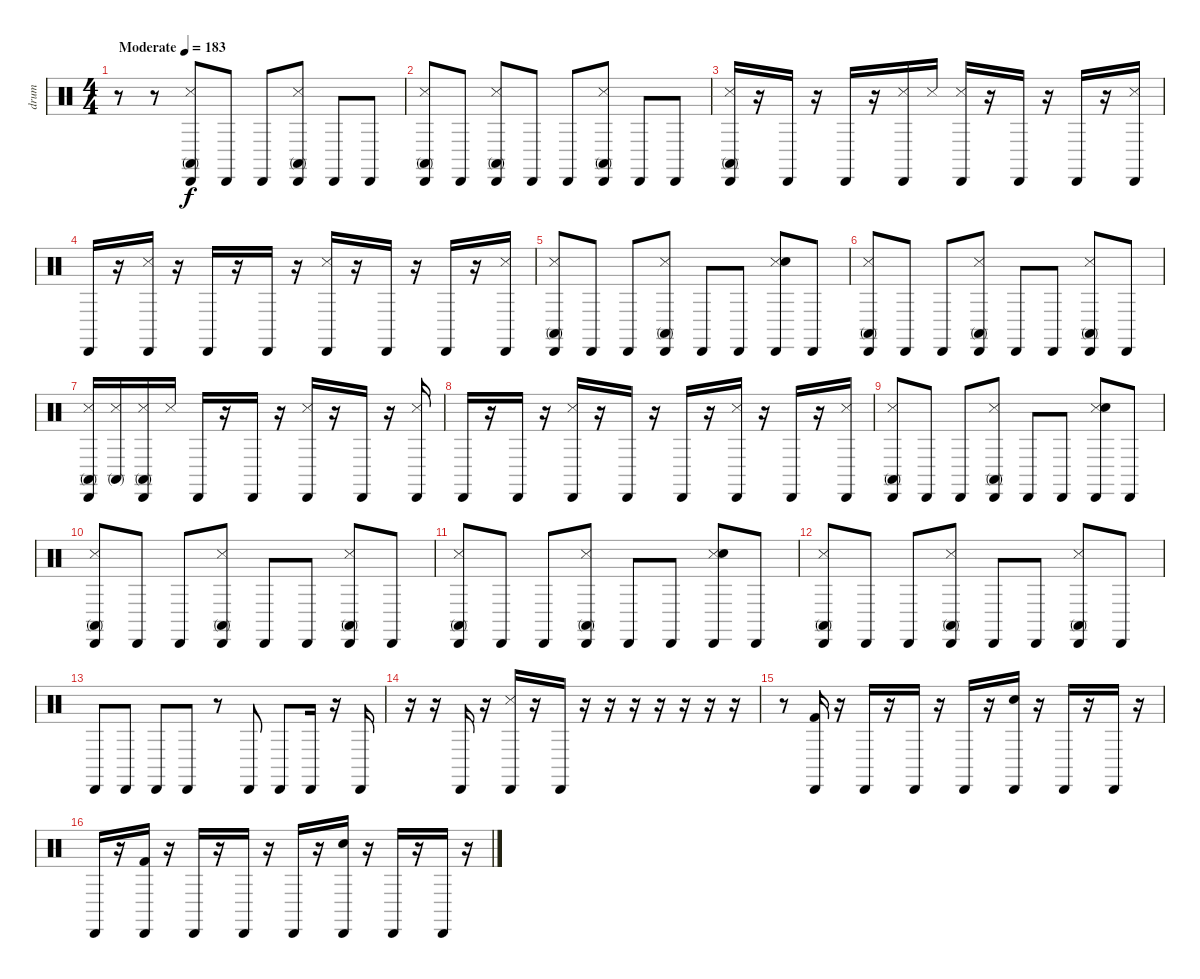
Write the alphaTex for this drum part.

\track ("drum" "drum") {instrument percussion}
\staff {score}
\articulation defaults
\ts (4 4)
\tempo (183 "Moderate")
\clef neutral
\ks c
r.8{dy f} r.8 ("Cabasa (hit)" "Conga high (mute)" "Snare (side stick) 3").8 "Cabasa (hit)".8 "Cabasa (hit)".8 ("Cabasa (hit)" "Snare (side stick) 3" "Conga high (mute)").8 "Cabasa (hit)".8 "Cabasa (hit)".8 |
("Cabasa (hit)" "Snare (side stick) 3" "Conga high (mute)").8 "Cabasa (hit)".8 ("Cabasa (hit)" "Conga high (mute)" "Snare (side stick) 3").8 "Cabasa (hit)".8 "Cabasa (hit)".8 ("Cabasa (hit)" "Conga high (mute)" "Snare (side stick) 3").8 "Cabasa (hit)".8 "Cabasa (hit)".8 |
("Cabasa (hit)" "Conga high (mute)" "Snare (side stick) 3").16 r.16 "Cabasa (hit)".16 r.16 "Cabasa (hit)".16 r.16 ("Cabasa (hit)" "Snare (side stick) 3").16 "Snare (side stick) 3".16 ("Cabasa (hit)" "Snare (side stick) 3").16 r.16 "Cabasa (hit)".16 r.16 "Cabasa (hit)".16 r.16 ("Cabasa (hit)" "Snare (side stick) 3").16 |
"Cabasa (hit)".16 r.16 ("Cabasa (hit)" "Snare (side stick) 3").16 r.16 "Cabasa (hit)".16 r.16 "Cabasa (hit)".16 r.16 ("Cabasa (hit)" "Snare (side stick) 3").16 r.16 "Cabasa (hit)".16 r.16 "Cabasa (hit)".16 r.16 ("Cabasa (hit)" "Snare (side stick) 3").16 |
("Cabasa (hit)" "Conga high (mute)" "Snare (side stick) 3").8 "Cabasa (hit)".8 "Cabasa (hit)".8 ("Cabasa (hit)" "Snare (side stick) 3" "Conga high (mute)").8 "Cabasa (hit)".8 "Cabasa (hit)".8 ("Cabasa (hit)" "Snare (side stick) 3" "Snare (hit)").8 "Cabasa (hit)".8 |
("Cabasa (hit)" "Snare (side stick) 3" "Conga high (mute)").8 "Cabasa (hit)".8 "Cabasa (hit)".8 ("Cabasa (hit)" "Conga high (mute)" "Snare (side stick) 3").8 "Cabasa (hit)".8 "Cabasa (hit)".8 ("Cabasa (hit)" "Conga high (mute)" "Snare (side stick) 3").8 "Cabasa (hit)".8 |
("Cabasa (hit)" "Conga high (mute)" "Snare (side stick) 3").16 ("Conga high (mute)" "Snare (side stick) 3").16 ("Cabasa (hit)" "Conga high (mute)" "Snare (side stick) 3").16 "Snare (side stick) 3".16 "Cabasa (hit)".16 r.16 "Cabasa (hit)".16 r.16 ("Cabasa (hit)" "Snare (side stick) 3").16 r.16 "Cabasa (hit)".16 r.16 ("Cabasa (hit)" "Snare (side stick) 3").16 |
"Cabasa (hit)".16 r.16 "Cabasa (hit)".16 r.16 ("Cabasa (hit)" "Snare (side stick) 3").16 r.16 "Cabasa (hit)".16 r.16 "Cabasa (hit)".16 r.16 ("Cabasa (hit)" "Snare (side stick) 3").16 r.16 "Cabasa (hit)".16 r.16 ("Cabasa (hit)" "Snare (side stick) 3").16 |
("Cabasa (hit)" "Conga high (mute)" "Snare (side stick) 3").8 "Cabasa (hit)".8 "Cabasa (hit)".8 ("Cabasa (hit)" "Snare (side stick) 3" "Conga high (mute)").8 "Cabasa (hit)".8 "Cabasa (hit)".8 ("Cabasa (hit)" "Snare (side stick) 3" "Snare (hit)").8 "Cabasa (hit)".8 |
("Cabasa (hit)" "Snare (side stick) 3" "Conga high (mute)").8 "Cabasa (hit)".8 "Cabasa (hit)".8 ("Cabasa (hit)" "Conga high (mute)" "Snare (side stick) 3").8 "Cabasa (hit)".8 "Cabasa (hit)".8 ("Cabasa (hit)" "Conga high (mute)" "Snare (side stick) 3").8 "Cabasa (hit)".8 |
("Cabasa (hit)" "Conga high (mute)" "Snare (side stick) 3").8 "Cabasa (hit)".8 "Cabasa (hit)".8 ("Cabasa (hit)" "Snare (side stick) 3" "Conga high (mute)").8 "Cabasa (hit)".8 "Cabasa (hit)".8 ("Cabasa (hit)" "Snare (side stick) 3" "Snare (hit)").8 "Cabasa (hit)".8 |
("Cabasa (hit)" "Snare (side stick) 3" "Conga high (mute)").8 "Cabasa (hit)".8 "Cabasa (hit)".8 ("Cabasa (hit)" "Conga high (mute)" "Snare (side stick) 3").8 "Cabasa (hit)".8 "Cabasa (hit)".8 ("Cabasa (hit)" "Conga high (mute)" "Snare (side stick) 3").8 "Cabasa (hit)".8 |
"Cabasa (hit)".8 "Cabasa (hit)".8 "Cabasa (hit)".8 "Cabasa (hit)".8 r.8 "Cabasa (hit)".8 "Cabasa (hit)".8 "Cabasa (hit)".16 r.16 "Cabasa (hit)".16 |
r.16 r.16 "Cabasa (hit)".16 r.16 ("Cabasa (hit)" "Snare (side stick) 3").16 r.16 "Cabasa (hit)".16 r.16 r.16 r.16 r.16 r.16 r.16 r.16 |
r.8 ("Cabasa (hit)" "Kick (hit) 2").16 r.16 "Cabasa (hit)".16 r.16 "Cabasa (hit)".16 r.16 "Cabasa (hit)".16 r.16 ("Cabasa (hit)" "Snare (hit) 2").16 r.16 "Cabasa (hit)".16 r.16 "Cabasa (hit)".16 r.16 |
"Cabasa (hit)".16 r.16 ("Cabasa (hit)" "Kick (hit) 2").16 r.16 "Cabasa (hit)".16 r.16 "Cabasa (hit)".16 r.16 "Cabasa (hit)".16 r.16 ("Cabasa (hit)" "Snare (hit) 2").16 r.16 "Cabasa (hit)".16 r.16 "Cabasa (hit)".16 r.16
